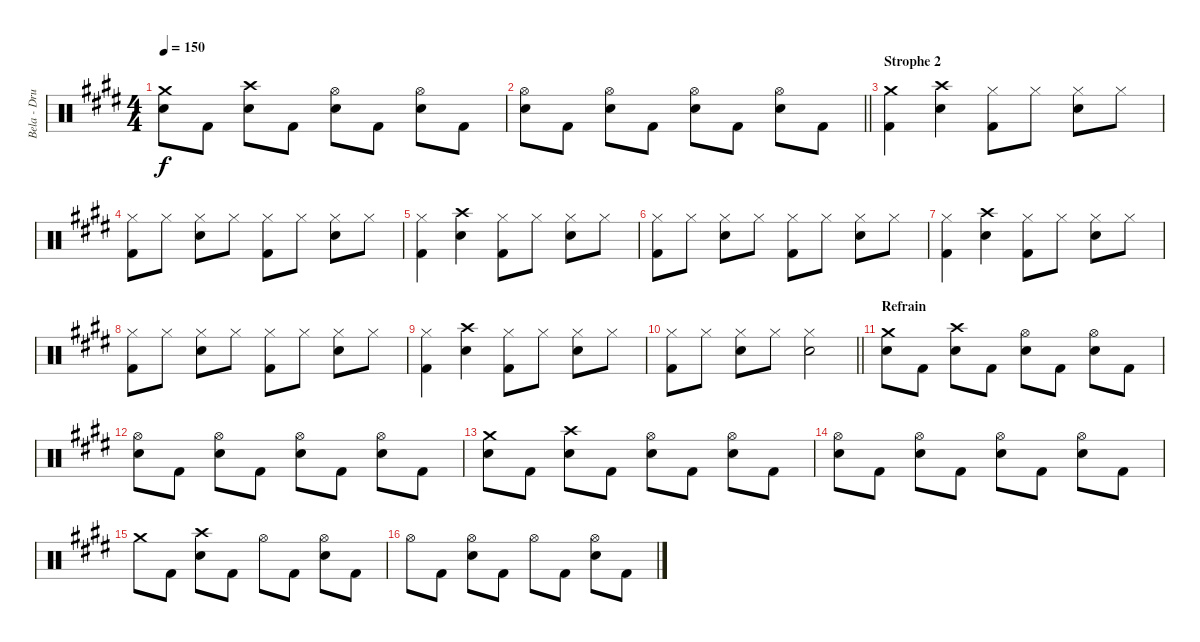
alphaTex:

\track ("Bela - Drums" "Bela - Dru") {instrument percussion}
\staff {score}
\articulation defaults
\ts (4 4)
\tempo 150
\clef neutral
\ks e
("Crash medium (hit)" "Electric Snare (hit)").8{dy f} "Kick (hit) 2".8 ("Crash high (hit)" "Electric Snare (hit)").8 "Kick (hit) 2".8 ("Hi-Hat (open)" "Electric Snare (hit)").8 "Kick (hit) 2".8 ("Hi-Hat (open)" "Electric Snare (hit)").8 "Kick (hit) 2".8 |
\barLineRight lightlight
("Hi-Hat (open)" "Electric Snare (hit)").8 "Kick (hit) 2".8 ("Hi-Hat (open)" "Electric Snare (hit)").8 "Kick (hit) 2".8 ("Hi-Hat (open)" "Electric Snare (hit)").8 "Kick (hit) 2".8 ("Hi-Hat (open)" "Electric Snare (hit)").8 "Kick (hit) 2".8 |
\section ("" "Strophe 2")
("Crash medium (hit)" "Kick (hit) 2").4 ("Crash high (hit)" "Electric Snare (hit)").4 ("Hi-Hat (closed)" "Kick (hit) 2").8 "Hi-Hat (closed)".8 ("Hi-Hat (closed)" "Electric Snare (hit)").8 "Hi-Hat (closed)".8 |
("Hi-Hat (closed)" "Kick (hit) 2").8 "Hi-Hat (closed)".8 ("Hi-Hat (closed)" "Electric Snare (hit)").8 "Hi-Hat (closed)".8 ("Hi-Hat (closed)" "Kick (hit) 2").8 "Hi-Hat (closed)".8 ("Hi-Hat (closed)" "Electric Snare (hit)").8 "Hi-Hat (closed)".8 |
("Hi-Hat (closed)" "Kick (hit) 2").4 ("Crash high (hit)" "Electric Snare (hit)").4 ("Hi-Hat (closed)" "Kick (hit) 2").8 "Hi-Hat (closed)".8 ("Hi-Hat (closed)" "Electric Snare (hit)").8 "Hi-Hat (closed)".8 |
("Hi-Hat (closed)" "Kick (hit) 2").8 "Hi-Hat (closed)".8 ("Hi-Hat (closed)" "Electric Snare (hit)").8 "Hi-Hat (closed)".8 ("Hi-Hat (closed)" "Kick (hit) 2").8 "Hi-Hat (closed)".8 ("Hi-Hat (closed)" "Electric Snare (hit)").8 "Hi-Hat (closed)".8 |
("Hi-Hat (closed)" "Kick (hit) 2").4 ("Crash high (hit)" "Electric Snare (hit)").4 ("Hi-Hat (closed)" "Kick (hit) 2").8 "Hi-Hat (closed)".8 ("Hi-Hat (closed)" "Electric Snare (hit)").8 "Hi-Hat (closed)".8 |
("Hi-Hat (closed)" "Kick (hit) 2").8 "Hi-Hat (closed)".8 ("Hi-Hat (closed)" "Electric Snare (hit)").8 "Hi-Hat (closed)".8 ("Hi-Hat (closed)" "Kick (hit) 2").8 "Hi-Hat (closed)".8 ("Hi-Hat (closed)" "Electric Snare (hit)").8 "Hi-Hat (closed)".8 |
("Hi-Hat (closed)" "Kick (hit) 2").4 ("Crash high (hit)" "Electric Snare (hit)").4 ("Hi-Hat (closed)" "Kick (hit) 2").8 "Hi-Hat (closed)".8 ("Hi-Hat (closed)" "Electric Snare (hit)").8 "Hi-Hat (closed)".8 |
\barLineRight lightlight
("Hi-Hat (closed)" "Kick (hit) 2").8 "Hi-Hat (closed)".8 ("Hi-Hat (closed)" "Electric Snare (hit)").8 "Hi-Hat (closed)".8 ("Hi-Hat (closed)" "Electric Snare (hit)").2 |
\section ("" "Refrain")
("Crash medium (hit)" "Electric Snare (hit)").8 "Kick (hit) 2".8 ("Crash high (hit)" "Electric Snare (hit)").8 "Kick (hit) 2".8 ("Hi-Hat (open)" "Electric Snare (hit)").8 "Kick (hit) 2".8 ("Hi-Hat (open)" "Electric Snare (hit)").8 "Kick (hit) 2".8 |
("Hi-Hat (open)" "Electric Snare (hit)").8 "Kick (hit) 2".8 ("Hi-Hat (open)" "Electric Snare (hit)").8 "Kick (hit) 2".8 ("Hi-Hat (open)" "Electric Snare (hit)").8 "Kick (hit) 2".8 ("Hi-Hat (open)" "Electric Snare (hit)").8 "Kick (hit) 2".8 |
("Crash medium (hit)" "Electric Snare (hit)").8 "Kick (hit) 2".8 ("Crash high (hit)" "Electric Snare (hit)").8 "Kick (hit) 2".8 ("Hi-Hat (open)" "Electric Snare (hit)").8 "Kick (hit) 2".8 ("Hi-Hat (open)" "Electric Snare (hit)").8 "Kick (hit) 2".8 |
("Hi-Hat (open)" "Electric Snare (hit)").8 "Kick (hit) 2".8 ("Hi-Hat (open)" "Electric Snare (hit)").8 "Kick (hit) 2".8 ("Hi-Hat (open)" "Electric Snare (hit)").8 "Kick (hit) 2".8 ("Hi-Hat (open)" "Electric Snare (hit)").8 "Kick (hit) 2".8 |
"Crash medium (hit)".8 "Kick (hit) 2".8 ("Crash high (hit)" "Electric Snare (hit)").8 "Kick (hit) 2".8 "Hi-Hat (open)".8 "Kick (hit) 2".8 ("Hi-Hat (open)" "Electric Snare (hit)").8 "Kick (hit) 2".8 |
"Hi-Hat (open)".8 "Kick (hit) 2".8 ("Hi-Hat (open)" "Electric Snare (hit)").8 "Kick (hit) 2".8 "Hi-Hat (open)".8 "Kick (hit) 2".8 ("Hi-Hat (open)" "Electric Snare (hit)").8 "Kick (hit) 2".8
